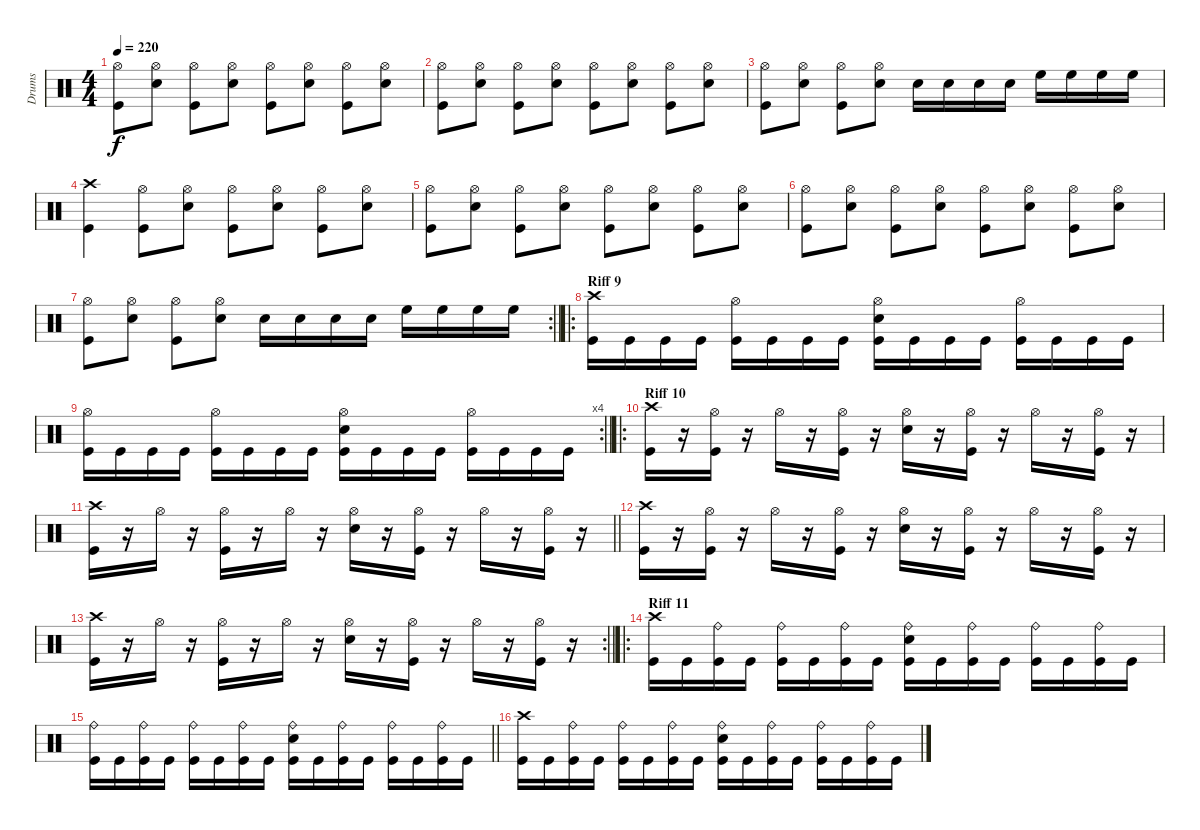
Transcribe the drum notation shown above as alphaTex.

\track ("Drums" "Drums") {instrument percussion}
\staff {score}
\articulation defaults
\ts (4 4)
\tempo 220
\clef neutral
\ks c
("Hi-Hat (open)" "Kick (hit)").8{dy f} ("Hi-Hat (open)" "Electric Snare (hit)").8 ("Hi-Hat (open)" "Kick (hit)").8 ("Hi-Hat (open)" "Electric Snare (hit)").8 ("Hi-Hat (open)" "Kick (hit)").8 ("Hi-Hat (open)" "Electric Snare (hit)").8 ("Hi-Hat (open)" "Kick (hit)").8 ("Hi-Hat (open)" "Electric Snare (hit)").8 |
("Hi-Hat (open)" "Kick (hit)").8 ("Hi-Hat (open)" "Electric Snare (hit)").8 ("Hi-Hat (open)" "Kick (hit)").8 ("Hi-Hat (open)" "Electric Snare (hit)").8 ("Hi-Hat (open)" "Kick (hit)").8 ("Hi-Hat (open)" "Electric Snare (hit)").8 ("Hi-Hat (open)" "Kick (hit)").8 ("Hi-Hat (open)" "Electric Snare (hit)").8 |
("Hi-Hat (open)" "Kick (hit)").8 ("Hi-Hat (open)" "Electric Snare (hit)").8 ("Hi-Hat (open)" "Kick (hit)").8 ("Hi-Hat (open)" "Electric Snare (hit)").8 "Electric Snare (hit)".16 "Electric Snare (hit)".16 "Electric Snare (hit)".16 "Electric Snare (hit)".16 "High Floor Tom (hit)".16 "High Floor Tom (hit)".16 "High Floor Tom (hit)".16 "High Floor Tom (hit)".16 |
("Crash high (hit)" "Kick (hit)").4 ("Hi-Hat (open)" "Kick (hit)").8 ("Hi-Hat (open)" "Electric Snare (hit)").8 ("Hi-Hat (open)" "Kick (hit)").8 ("Hi-Hat (open)" "Electric Snare (hit)").8 ("Hi-Hat (open)" "Kick (hit)").8 ("Hi-Hat (open)" "Electric Snare (hit)").8 |
("Hi-Hat (open)" "Kick (hit)").8 ("Hi-Hat (open)" "Electric Snare (hit)").8 ("Hi-Hat (open)" "Kick (hit)").8 ("Hi-Hat (open)" "Electric Snare (hit)").8 ("Hi-Hat (open)" "Kick (hit)").8 ("Hi-Hat (open)" "Electric Snare (hit)").8 ("Hi-Hat (open)" "Kick (hit)").8 ("Hi-Hat (open)" "Electric Snare (hit)").8 |
("Hi-Hat (open)" "Kick (hit)").8 ("Hi-Hat (open)" "Electric Snare (hit)").8 ("Hi-Hat (open)" "Kick (hit)").8 ("Hi-Hat (open)" "Electric Snare (hit)").8 ("Hi-Hat (open)" "Kick (hit)").8 ("Hi-Hat (open)" "Electric Snare (hit)").8 ("Hi-Hat (open)" "Kick (hit)").8 ("Hi-Hat (open)" "Electric Snare (hit)").8 |
\rc 2
\barLineRight lightlight
("Hi-Hat (open)" "Kick (hit)").8 ("Hi-Hat (open)" "Electric Snare (hit)").8 ("Hi-Hat (open)" "Kick (hit)").8 ("Hi-Hat (open)" "Electric Snare (hit)").8 "Electric Snare (hit)".16 "Electric Snare (hit)".16 "Electric Snare (hit)".16 "Electric Snare (hit)".16 "High Floor Tom (hit)".16 "High Floor Tom (hit)".16 "High Floor Tom (hit)".16 "High Floor Tom (hit)".16 |
\ro
\section ("" "Riff 9")
("Crash high (hit)" "Kick (hit)").16 "Kick (hit)".16 "Kick (hit)".16 "Kick (hit)".16 ("Hi-Hat (open)" "Kick (hit)").16 "Kick (hit)".16 "Kick (hit)".16 "Kick (hit)".16 ("Hi-Hat (open)" "Electric Snare (hit)" "Kick (hit)").16 "Kick (hit)".16 "Kick (hit)".16 "Kick (hit)".16 ("Hi-Hat (open)" "Kick (hit)").16 "Kick (hit)".16 "Kick (hit)".16 "Kick (hit)".16 |
\rc 4
\barLineRight lightlight
("Hi-Hat (open)" "Kick (hit)").16 "Kick (hit)".16 "Kick (hit)".16 "Kick (hit)".16 ("Hi-Hat (open)" "Kick (hit)").16 "Kick (hit)".16 "Kick (hit)".16 "Kick (hit)".16 ("Hi-Hat (open)" "Electric Snare (hit)" "Kick (hit)").16 "Kick (hit)".16 "Kick (hit)".16 "Kick (hit)".16 ("Hi-Hat (open)" "Kick (hit)").16 "Kick (hit)".16 "Kick (hit)".16 "Kick (hit)".16 |
\ro
\section ("" "Riff 10")
("Crash high (hit)" "Kick (hit)").16 r.16 ("Hi-Hat (open)" "Kick (hit)").16 r.16 "Hi-Hat (open)".16 r.16 ("Hi-Hat (open)" "Kick (hit)").16 r.16 ("Hi-Hat (open)" "Electric Snare (hit)").16 r.16 ("Hi-Hat (open)" "Kick (hit)").16 r.16 "Hi-Hat (open)".16 r.16 ("Hi-Hat (open)" "Kick (hit)").16 r.16 |
\barLineRight lightlight
("Crash high (hit)" "Kick (hit)").16 r.16 "Hi-Hat (open)".16 r.16 ("Hi-Hat (open)" "Kick (hit)").16 r.16 "Hi-Hat (open)".16 r.16 ("Hi-Hat (open)" "Electric Snare (hit)").16 r.16 ("Hi-Hat (open)" "Kick (hit)").16 r.16 "Hi-Hat (open)".16 r.16 ("Hi-Hat (open)" "Kick (hit)").16 r.16 |
("Crash high (hit)" "Kick (hit)").16 r.16 ("Hi-Hat (open)" "Kick (hit)").16 r.16 "Hi-Hat (open)".16 r.16 ("Hi-Hat (open)" "Kick (hit)").16 r.16 ("Hi-Hat (open)" "Electric Snare (hit)").16 r.16 ("Hi-Hat (open)" "Kick (hit)").16 r.16 "Hi-Hat (open)".16 r.16 ("Hi-Hat (open)" "Kick (hit)").16 r.16 |
\rc 2
\barLineRight lightlight
("Crash high (hit)" "Kick (hit)").16 r.16 "Hi-Hat (open)".16 r.16 ("Hi-Hat (open)" "Kick (hit)").16 r.16 "Hi-Hat (open)".16 r.16 ("Hi-Hat (open)" "Electric Snare (hit)").16 r.16 ("Hi-Hat (open)" "Kick (hit)").16 r.16 "Hi-Hat (open)".16 r.16 ("Hi-Hat (open)" "Kick (hit)").16 r.16 |
\ro
\section ("" "Riff 11")
("Crash high (hit)" "Kick (hit)").16 "Kick (hit)".16 ("Ride (bell)" "Kick (hit)").16 "Kick (hit)".16 ("Ride (bell)" "Kick (hit)").16 "Kick (hit)".16 ("Ride (bell)" "Kick (hit)").16 "Kick (hit)".16 ("Ride (bell)" "Electric Snare (hit)" "Kick (hit)").16 "Kick (hit)".16 ("Ride (bell)" "Kick (hit)").16 "Kick (hit)".16 ("Ride (bell)" "Kick (hit)").16 "Kick (hit)".16 ("Ride (bell)" "Kick (hit)").16 "Kick (hit)".16 |
\barLineRight lightlight
("Ride (bell)" "Kick (hit)").16 "Kick (hit)".16 ("Ride (bell)" "Kick (hit)").16 "Kick (hit)".16 ("Ride (bell)" "Kick (hit)").16 "Kick (hit)".16 ("Ride (bell)" "Kick (hit)").16 "Kick (hit)".16 ("Ride (bell)" "Electric Snare (hit)" "Kick (hit)").16 "Kick (hit)".16 ("Ride (bell)" "Kick (hit)").16 "Kick (hit)".16 ("Ride (bell)" "Kick (hit)").16 "Kick (hit)".16 ("Ride (bell)" "Kick (hit)").16 "Kick (hit)".16 |
("Crash high (hit)" "Kick (hit)").16 "Kick (hit)".16 ("Ride (bell)" "Kick (hit)").16 "Kick (hit)".16 ("Ride (bell)" "Kick (hit)").16 "Kick (hit)".16 ("Ride (bell)" "Kick (hit)").16 "Kick (hit)".16 ("Ride (bell)" "Electric Snare (hit)" "Kick (hit)").16 "Kick (hit)".16 ("Ride (bell)" "Kick (hit)").16 "Kick (hit)".16 ("Ride (bell)" "Kick (hit)").16 "Kick (hit)".16 ("Ride (bell)" "Kick (hit)").16 "Kick (hit)".16
